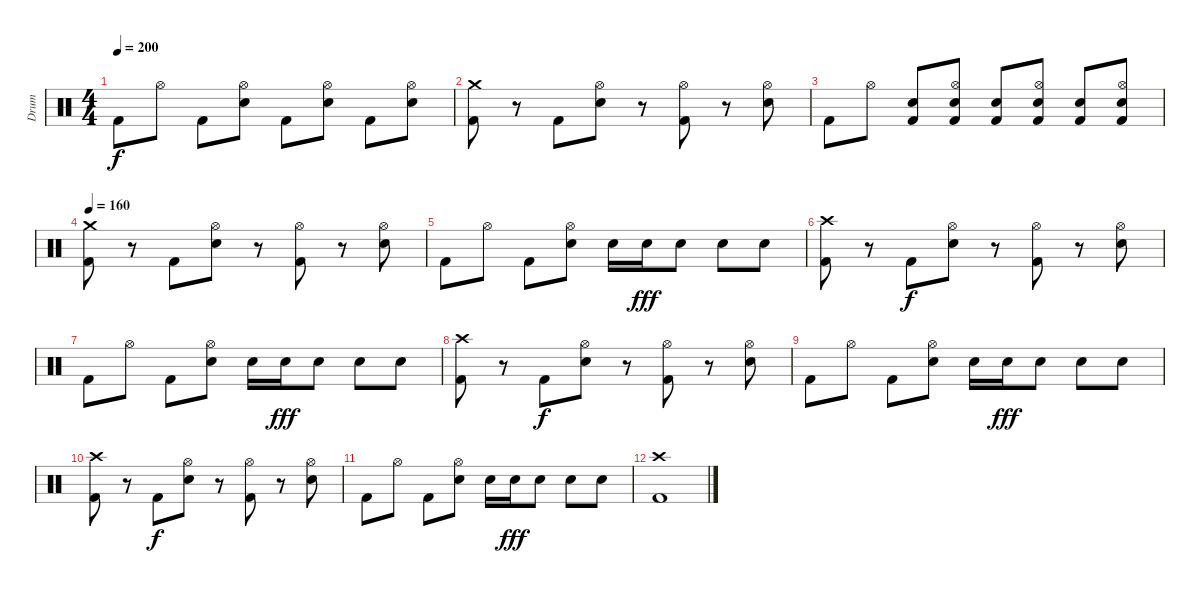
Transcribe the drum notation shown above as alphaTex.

\track ("Drum" "Drum") {instrument percussion}
\staff {score}
\articulation defaults
\ts (4 4)
\tempo 200
\clef neutral
\ks c "Kick (hit) 2".8{dy f} "Hi-Hat (open)".8 "Kick (hit) 2".8
("Hi-Hat (open)" "Electric Snare (hit)").8 "Kick (hit) 2".8 ("Hi-Hat (open)" "Electric Snare (hit)").8 "Kick (hit) 2".8 ("Hi-Hat (open)" "Electric Snare (hit)").8 |
("Crash medium (hit)" "Kick (hit) 2").8 r.8 "Kick (hit) 2".8 ("Hi-Hat (open)" "Electric Snare (hit)").8 r.8 ("Hi-Hat (open)" "Kick (hit) 2").8 r.8 ("Hi-Hat (open)" "Electric Snare (hit)").8 |
"Kick (hit) 2".8 "Hi-Hat (open)".8 ("Electric Snare (hit)" "Kick (hit) 2").8 ("Hi-Hat (open)" "Electric Snare (hit)" "Kick (hit) 2").8 ("Electric Snare (hit)" "Kick (hit) 2").8 ("Hi-Hat (open)" "Electric Snare (hit)" "Kick (hit) 2").8 ("Electric Snare (hit)" "Kick (hit) 2").8 ("Hi-Hat (open)" "Electric Snare (hit)" "Kick (hit) 2").8 |
\tempo 160
("Crash medium (hit)" "Kick (hit) 2").8 r.8 "Kick (hit) 2".8 ("Hi-Hat (open)" "Electric Snare (hit)").8 r.8 ("Hi-Hat (open)" "Kick (hit) 2").8 r.8 ("Hi-Hat (open)" "Electric Snare (hit)").8 |
"Kick (hit) 2".8 "Hi-Hat (open)".8 "Kick (hit) 2".8 ("Hi-Hat (open)" "Electric Snare (hit)").8 "Electric Snare (hit)".16 "Electric Snare (hit)".16{dy fff} "Electric Snare (hit)".8 "Electric Snare (hit)".8 "Electric Snare (hit)".8 |
("Crash high (hit)" "Kick (hit) 2").8 r.8 "Kick (hit) 2".8{dy f} ("Hi-Hat (open)" "Electric Snare (hit)").8 r.8 ("Hi-Hat (open)" "Kick (hit) 2").8 r.8 ("Hi-Hat (open)" "Electric Snare (hit)").8 |
"Kick (hit) 2".8 "Hi-Hat (open)".8 "Kick (hit) 2".8 ("Hi-Hat (open)" "Electric Snare (hit)").8 "Electric Snare (hit)".16 "Electric Snare (hit)".16{dy fff} "Electric Snare (hit)".8 "Electric Snare (hit)".8 "Electric Snare (hit)".8 |
("Crash high (hit)" "Kick (hit) 2").8 r.8 "Kick (hit) 2".8{dy f} ("Hi-Hat (open)" "Electric Snare (hit)").8 r.8 ("Hi-Hat (open)" "Kick (hit) 2").8 r.8 ("Hi-Hat (open)" "Electric Snare (hit)").8 |
"Kick (hit) 2".8 "Hi-Hat (open)".8 "Kick (hit) 2".8 ("Hi-Hat (open)" "Electric Snare (hit)").8 "Electric Snare (hit)".16 "Electric Snare (hit)".16{dy fff} "Electric Snare (hit)".8 "Electric Snare (hit)".8 "Electric Snare (hit)".8 |
("Crash high (hit)" "Kick (hit) 2").8 r.8 "Kick (hit) 2".8{dy f} ("Hi-Hat (open)" "Electric Snare (hit)").8 r.8 ("Hi-Hat (open)" "Kick (hit) 2").8 r.8 ("Hi-Hat (open)" "Electric Snare (hit)").8 |
"Kick (hit) 2".8 "Hi-Hat (open)".8 "Kick (hit) 2".8 ("Hi-Hat (open)" "Electric Snare (hit)").8 "Electric Snare (hit)".16 "Electric Snare (hit)".16{dy fff} "Electric Snare (hit)".8 "Electric Snare (hit)".8 "Electric Snare (hit)".8 |
("Crash high (hit)" "Kick (hit) 2").1
